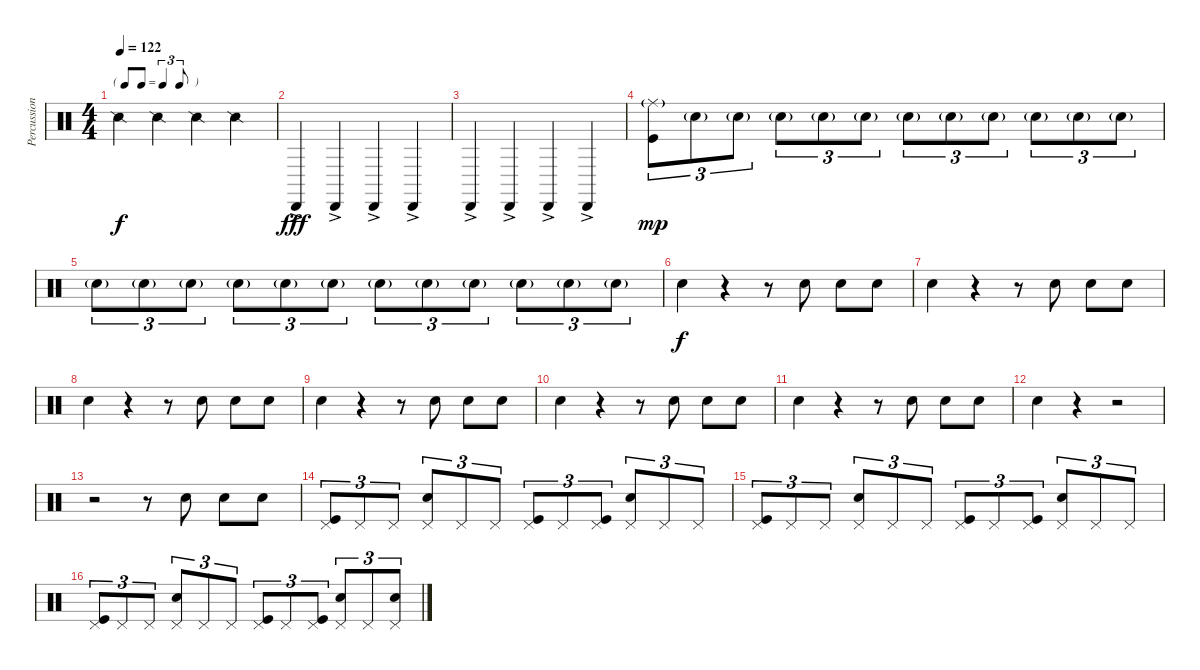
\track ("Percussion" "Percussion") {instrument percussion}
\staff {score}
\articulation defaults
\ts (4 4)
\tf triplet8th
\tempo 122
\clef neutral
\ks c "Snare (side stick) 2".4{dy f} "Snare (side stick) 2".4 "Snare (side stick) 2".4 "Snare (side stick) 2".4
|
"Cabasa (hit)"{ac}.4{dy fff} "Cabasa (hit)"{ac}.4 "Cabasa (hit)"{ac}.4 "Cabasa (hit)"{ac}.4 |
"Cabasa (hit)"{ac}.4 "Cabasa (hit)"{ac}.4 "Cabasa (hit)"{ac}.4 "Cabasa (hit)"{ac}.4 |
("Ride (middle)"{g} "Kick (hit)").8{tu (3 2) dy mp} "Snare (hit) 2"{g}.8{tu (3 2)} "Snare (hit) 2"{g}.8{tu (3 2)} "Snare (hit) 2"{g}.8{tu (3 2)} "Snare (hit) 2"{g}.8{tu (3 2)} "Snare (hit) 2"{g}.8{tu (3 2)} "Snare (hit) 2"{g}.8{tu (3 2)} "Snare (hit) 2"{g}.8{tu (3 2)} "Snare (hit) 2"{g}.8{tu (3 2)} "Snare (hit) 2"{g}.8{tu (3 2)} "Snare (hit) 2"{g}.8{tu (3 2)} "Snare (hit) 2"{g}.8{tu (3 2)} |
"Snare (hit) 2"{g}.8{tu (3 2)} "Snare (hit) 2"{g}.8{tu (3 2)} "Snare (hit) 2"{g}.8{tu (3 2)} "Snare (hit) 2"{g}.8{tu (3 2)} "Snare (hit) 2"{g}.8{tu (3 2)} "Snare (hit) 2"{g}.8{tu (3 2)} "Snare (hit) 2"{g}.8{tu (3 2)} "Snare (hit) 2"{g}.8{tu (3 2)} "Snare (hit) 2"{g}.8{tu (3 2)} "Snare (hit) 2"{g}.8{tu (3 2)} "Snare (hit) 2"{g}.8{tu (3 2)} "Snare (hit) 2"{g}.8{tu (3 2)} |
"Snare (hit) 2".4{dy f} r.4 r.8 "Snare (hit) 2".8 "Snare (hit) 2".8 "Snare (hit) 2".8 |
"Snare (hit) 2".4 r.4 r.8 "Snare (hit) 2".8 "Snare (hit) 2".8 "Snare (hit) 2".8 |
"Snare (hit) 2".4 r.4 r.8 "Snare (hit) 2".8 "Snare (hit) 2".8 "Snare (hit) 2".8 |
"Snare (hit) 2".4 r.4 r.8 "Snare (hit) 2".8 "Snare (hit) 2".8 "Snare (hit) 2".8 |
"Snare (hit) 2".4 r.4 r.8 "Snare (hit) 2".8 "Snare (hit) 2".8 "Snare (hit) 2".8 |
"Snare (hit) 2".4 r.4 r.8 "Snare (hit) 2".8 "Snare (hit) 2".8 "Snare (hit) 2".8 |
"Snare (hit) 2".4 r.4 r.2 |
r.2 r.8 "Snare (hit) 2".8 "Snare (hit) 2".8 "Snare (hit) 2".8 |
("Pedal Hi-Hat (hit)" "Kick (hit)").8{tu (3 2)} "Pedal Hi-Hat (hit)".8{tu (3 2)} "Pedal Hi-Hat (hit)".8{tu (3 2)} ("Pedal Hi-Hat (hit)" "Snare (hit) 2").8{tu (3 2)} "Pedal Hi-Hat (hit)".8{tu (3 2)} "Pedal Hi-Hat (hit)".8{tu (3 2)} ("Pedal Hi-Hat (hit)" "Kick (hit)").8{tu (3 2)} "Pedal Hi-Hat (hit)".8{tu (3 2)} ("Pedal Hi-Hat (hit)" "Kick (hit)").8{tu (3 2)} ("Pedal Hi-Hat (hit)" "Snare (hit) 2").8{tu (3 2)} "Pedal Hi-Hat (hit)".8{tu (3 2)} "Pedal Hi-Hat (hit)".8{tu (3 2)} |
("Pedal Hi-Hat (hit)" "Kick (hit)").8{tu (3 2)} "Pedal Hi-Hat (hit)".8{tu (3 2)} "Pedal Hi-Hat (hit)".8{tu (3 2)} ("Pedal Hi-Hat (hit)" "Snare (hit) 2").8{tu (3 2)} "Pedal Hi-Hat (hit)".8{tu (3 2)} "Pedal Hi-Hat (hit)".8{tu (3 2)} ("Pedal Hi-Hat (hit)" "Kick (hit)").8{tu (3 2)} "Pedal Hi-Hat (hit)".8{tu (3 2)} ("Pedal Hi-Hat (hit)" "Kick (hit)").8{tu (3 2)} ("Pedal Hi-Hat (hit)" "Snare (hit) 2").8{tu (3 2)} "Pedal Hi-Hat (hit)".8{tu (3 2)} "Pedal Hi-Hat (hit)".8{tu (3 2)} |
("Pedal Hi-Hat (hit)" "Kick (hit)").8{tu (3 2)} "Pedal Hi-Hat (hit)".8{tu (3 2)} "Pedal Hi-Hat (hit)".8{tu (3 2)} ("Pedal Hi-Hat (hit)" "Snare (hit) 2").8{tu (3 2)} "Pedal Hi-Hat (hit)".8{tu (3 2)} "Pedal Hi-Hat (hit)".8{tu (3 2)} ("Pedal Hi-Hat (hit)" "Kick (hit)").8{tu (3 2)} "Pedal Hi-Hat (hit)".8{tu (3 2)} ("Pedal Hi-Hat (hit)" "Kick (hit)").8{tu (3 2)} ("Pedal Hi-Hat (hit)" "Snare (hit) 2").8{tu (3 2)} "Pedal Hi-Hat (hit)".8{tu (3 2)} ("Pedal Hi-Hat (hit)" "Snare (hit) 2").8{tu (3 2)}
